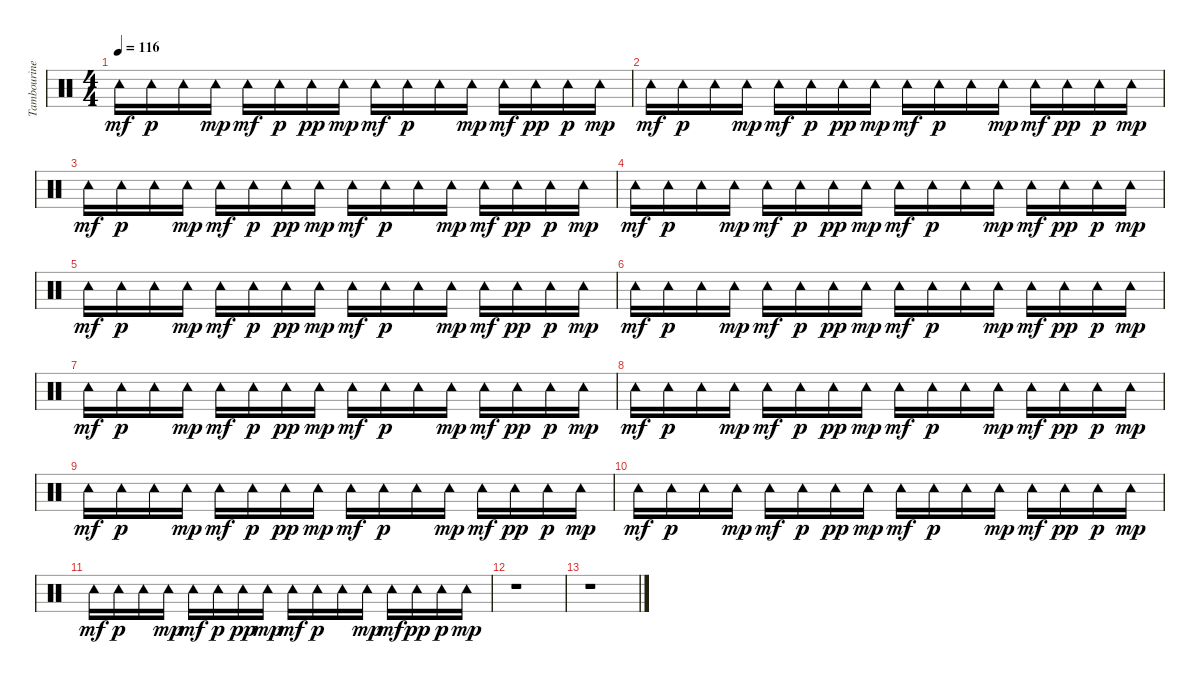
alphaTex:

\track ("Tambourine" "Tambourine") {instrument percussion}
\staff {score}
\articulation defaults
\ts (4 4)
\tempo 116
\clef neutral
\ks c "Tambourine (hit)".16{dy mf} "Tambourine (hit)".16{dy p} "Tambourine (hit)".16 "Tambourine (hit)".16{dy mp} "Tambourine (hit)".16{dy mf} "Tambourine (hit)".16{dy p} "Tambourine (hit)".16{dy pp} "Tambourine (hit)".16{dy mp} "Tambourine (hit)".16{dy mf} "Tambourine (hit)".16{dy p} "Tambourine (hit)".16 "Tambourine (hit)".16{dy mp} "Tambourine (hit)".16{dy mf} "Tambourine (hit)".16{dy pp} "Tambourine (hit)".16{dy p} "Tambourine (hit)".16{dy mp}
|
"Tambourine (hit)".16{dy mf} "Tambourine (hit)".16{dy p} "Tambourine (hit)".16 "Tambourine (hit)".16{dy mp} "Tambourine (hit)".16{dy mf} "Tambourine (hit)".16{dy p} "Tambourine (hit)".16{dy pp} "Tambourine (hit)".16{dy mp} "Tambourine (hit)".16{dy mf} "Tambourine (hit)".16{dy p} "Tambourine (hit)".16 "Tambourine (hit)".16{dy mp} "Tambourine (hit)".16{dy mf} "Tambourine (hit)".16{dy pp} "Tambourine (hit)".16{dy p} "Tambourine (hit)".16{dy mp} |
"Tambourine (hit)".16{dy mf} "Tambourine (hit)".16{dy p} "Tambourine (hit)".16 "Tambourine (hit)".16{dy mp} "Tambourine (hit)".16{dy mf} "Tambourine (hit)".16{dy p} "Tambourine (hit)".16{dy pp} "Tambourine (hit)".16{dy mp} "Tambourine (hit)".16{dy mf} "Tambourine (hit)".16{dy p} "Tambourine (hit)".16 "Tambourine (hit)".16{dy mp} "Tambourine (hit)".16{dy mf} "Tambourine (hit)".16{dy pp} "Tambourine (hit)".16{dy p} "Tambourine (hit)".16{dy mp} |
"Tambourine (hit)".16{dy mf} "Tambourine (hit)".16{dy p} "Tambourine (hit)".16 "Tambourine (hit)".16{dy mp} "Tambourine (hit)".16{dy mf} "Tambourine (hit)".16{dy p} "Tambourine (hit)".16{dy pp} "Tambourine (hit)".16{dy mp} "Tambourine (hit)".16{dy mf} "Tambourine (hit)".16{dy p} "Tambourine (hit)".16 "Tambourine (hit)".16{dy mp} "Tambourine (hit)".16{dy mf} "Tambourine (hit)".16{dy pp} "Tambourine (hit)".16{dy p} "Tambourine (hit)".16{dy mp} |
"Tambourine (hit)".16{dy mf} "Tambourine (hit)".16{dy p} "Tambourine (hit)".16 "Tambourine (hit)".16{dy mp} "Tambourine (hit)".16{dy mf} "Tambourine (hit)".16{dy p} "Tambourine (hit)".16{dy pp} "Tambourine (hit)".16{dy mp} "Tambourine (hit)".16{dy mf} "Tambourine (hit)".16{dy p} "Tambourine (hit)".16 "Tambourine (hit)".16{dy mp} "Tambourine (hit)".16{dy mf} "Tambourine (hit)".16{dy pp} "Tambourine (hit)".16{dy p} "Tambourine (hit)".16{dy mp} |
"Tambourine (hit)".16{dy mf} "Tambourine (hit)".16{dy p} "Tambourine (hit)".16 "Tambourine (hit)".16{dy mp} "Tambourine (hit)".16{dy mf} "Tambourine (hit)".16{dy p} "Tambourine (hit)".16{dy pp} "Tambourine (hit)".16{dy mp} "Tambourine (hit)".16{dy mf} "Tambourine (hit)".16{dy p} "Tambourine (hit)".16 "Tambourine (hit)".16{dy mp} "Tambourine (hit)".16{dy mf} "Tambourine (hit)".16{dy pp} "Tambourine (hit)".16{dy p} "Tambourine (hit)".16{dy mp} |
"Tambourine (hit)".16{dy mf} "Tambourine (hit)".16{dy p} "Tambourine (hit)".16 "Tambourine (hit)".16{dy mp} "Tambourine (hit)".16{dy mf} "Tambourine (hit)".16{dy p} "Tambourine (hit)".16{dy pp} "Tambourine (hit)".16{dy mp} "Tambourine (hit)".16{dy mf} "Tambourine (hit)".16{dy p} "Tambourine (hit)".16 "Tambourine (hit)".16{dy mp} "Tambourine (hit)".16{dy mf} "Tambourine (hit)".16{dy pp} "Tambourine (hit)".16{dy p} "Tambourine (hit)".16{dy mp} |
"Tambourine (hit)".16{dy mf} "Tambourine (hit)".16{dy p} "Tambourine (hit)".16 "Tambourine (hit)".16{dy mp} "Tambourine (hit)".16{dy mf} "Tambourine (hit)".16{dy p} "Tambourine (hit)".16{dy pp} "Tambourine (hit)".16{dy mp} "Tambourine (hit)".16{dy mf} "Tambourine (hit)".16{dy p} "Tambourine (hit)".16 "Tambourine (hit)".16{dy mp} "Tambourine (hit)".16{dy mf} "Tambourine (hit)".16{dy pp} "Tambourine (hit)".16{dy p} "Tambourine (hit)".16{dy mp} |
"Tambourine (hit)".16{dy mf} "Tambourine (hit)".16{dy p} "Tambourine (hit)".16 "Tambourine (hit)".16{dy mp} "Tambourine (hit)".16{dy mf} "Tambourine (hit)".16{dy p} "Tambourine (hit)".16{dy pp} "Tambourine (hit)".16{dy mp} "Tambourine (hit)".16{dy mf} "Tambourine (hit)".16{dy p} "Tambourine (hit)".16 "Tambourine (hit)".16{dy mp} "Tambourine (hit)".16{dy mf} "Tambourine (hit)".16{dy pp} "Tambourine (hit)".16{dy p} "Tambourine (hit)".16{dy mp} |
"Tambourine (hit)".16{dy mf} "Tambourine (hit)".16{dy p} "Tambourine (hit)".16 "Tambourine (hit)".16{dy mp} "Tambourine (hit)".16{dy mf} "Tambourine (hit)".16{dy p} "Tambourine (hit)".16{dy pp} "Tambourine (hit)".16{dy mp} "Tambourine (hit)".16{dy mf} "Tambourine (hit)".16{dy p} "Tambourine (hit)".16 "Tambourine (hit)".16{dy mp} "Tambourine (hit)".16{dy mf} "Tambourine (hit)".16{dy pp} "Tambourine (hit)".16{dy p} "Tambourine (hit)".16{dy mp} |
"Tambourine (hit)".16{dy mf} "Tambourine (hit)".16{dy p} "Tambourine (hit)".16 "Tambourine (hit)".16{dy mp} "Tambourine (hit)".16{dy mf} "Tambourine (hit)".16{dy p} "Tambourine (hit)".16{dy pp} "Tambourine (hit)".16{dy mp} "Tambourine (hit)".16{dy mf} "Tambourine (hit)".16{dy p} "Tambourine (hit)".16 "Tambourine (hit)".16{dy mp} "Tambourine (hit)".16{dy mf} "Tambourine (hit)".16{dy pp} "Tambourine (hit)".16{dy p} "Tambourine (hit)".16{dy mp} |
r.1 |
r.1
